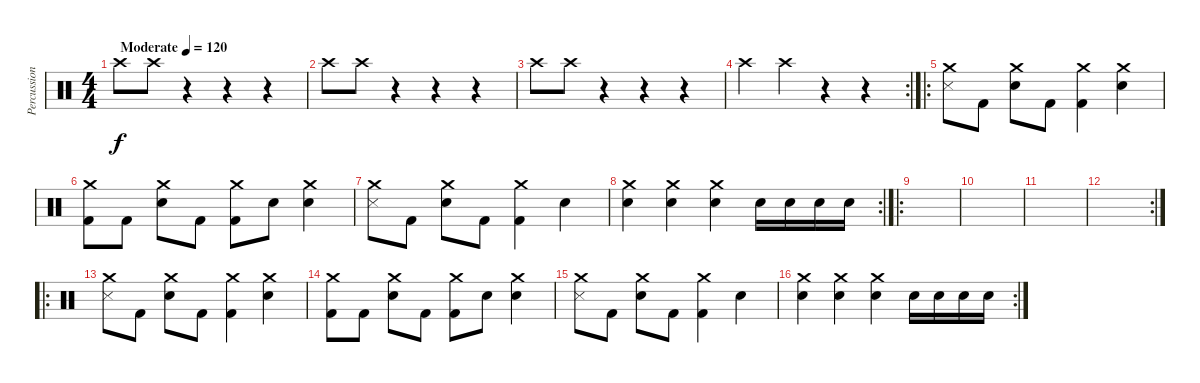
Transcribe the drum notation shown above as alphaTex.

\track ("Percussion" "Percussion") {instrument percussion}
\staff {score}
\articulation defaults
\ts (4 4)
\tempo (120 "Moderate")
\clef neutral
\ks c "Crash high (hit)".8{dy f} "Crash high (hit)".8
r.4 r.4 r.4 |
"Crash high (hit)".8 "Crash high (hit)".8 r.4 r.4 r.4 |
"Crash high (hit)".8 "Crash high (hit)".8 r.4 r.4 r.4 |
\rc 2 "Crash high (hit)".4 "Crash high (hit)".4
r.4 r.4 |
\ro
("Crash medium (hit)" "Snare (side stick) 3").8 "Kick (hit) 2".8 ("Crash medium (hit)" "Snare (hit) 2").8 "Kick (hit) 2".8 ("Crash medium (hit)" "Kick (hit) 2").4 ("Crash medium (hit)" "Snare (hit) 2").4 |
("Crash medium (hit)" "Kick (hit) 2").8 "Kick (hit) 2".8 ("Crash medium (hit)" "Snare (hit) 2").8 "Kick (hit) 2".8 ("Crash medium (hit)" "Kick (hit) 2").8 "Snare (hit) 2".8 ("Crash medium (hit)" "Snare (hit) 2").4 |
("Crash medium (hit)" "Snare (side stick) 3").8 "Kick (hit) 2".8 ("Crash medium (hit)" "Snare (hit) 2").8 "Kick (hit) 2".8 ("Crash medium (hit)" "Kick (hit) 2").4 "Snare (hit) 2".4 |
\rc 2
("Crash medium (hit)" "Snare (hit) 2").4 ("Crash medium (hit)" "Snare (hit) 2").4 ("Crash medium (hit)" "Snare (hit) 2").4 "Snare (hit) 2".16 "Snare (hit) 2".16 "Snare (hit) 2".16 "Snare (hit) 2".16 |
\ro
|
|
|
\rc 2
|
\ro
("Crash medium (hit)" "Snare (side stick) 3").8 "Kick (hit) 2".8 ("Crash medium (hit)" "Snare (hit) 2").8 "Kick (hit) 2".8 ("Crash medium (hit)" "Kick (hit) 2").4 ("Crash medium (hit)" "Snare (hit) 2").4 |
("Crash medium (hit)" "Kick (hit) 2").8 "Kick (hit) 2".8 ("Crash medium (hit)" "Snare (hit) 2").8 "Kick (hit) 2".8 ("Crash medium (hit)" "Kick (hit) 2").8 "Snare (hit) 2".8 ("Crash medium (hit)" "Snare (hit) 2").4 |
("Crash medium (hit)" "Snare (side stick) 3").8 "Kick (hit) 2".8 ("Crash medium (hit)" "Snare (hit) 2").8 "Kick (hit) 2".8 ("Crash medium (hit)" "Kick (hit) 2").4 "Snare (hit) 2".4 |
\rc 2
("Crash medium (hit)" "Snare (hit) 2").4 ("Crash medium (hit)" "Snare (hit) 2").4 ("Crash medium (hit)" "Snare (hit) 2").4 "Snare (hit) 2".16 "Snare (hit) 2".16 "Snare (hit) 2".16 "Snare (hit) 2".16
